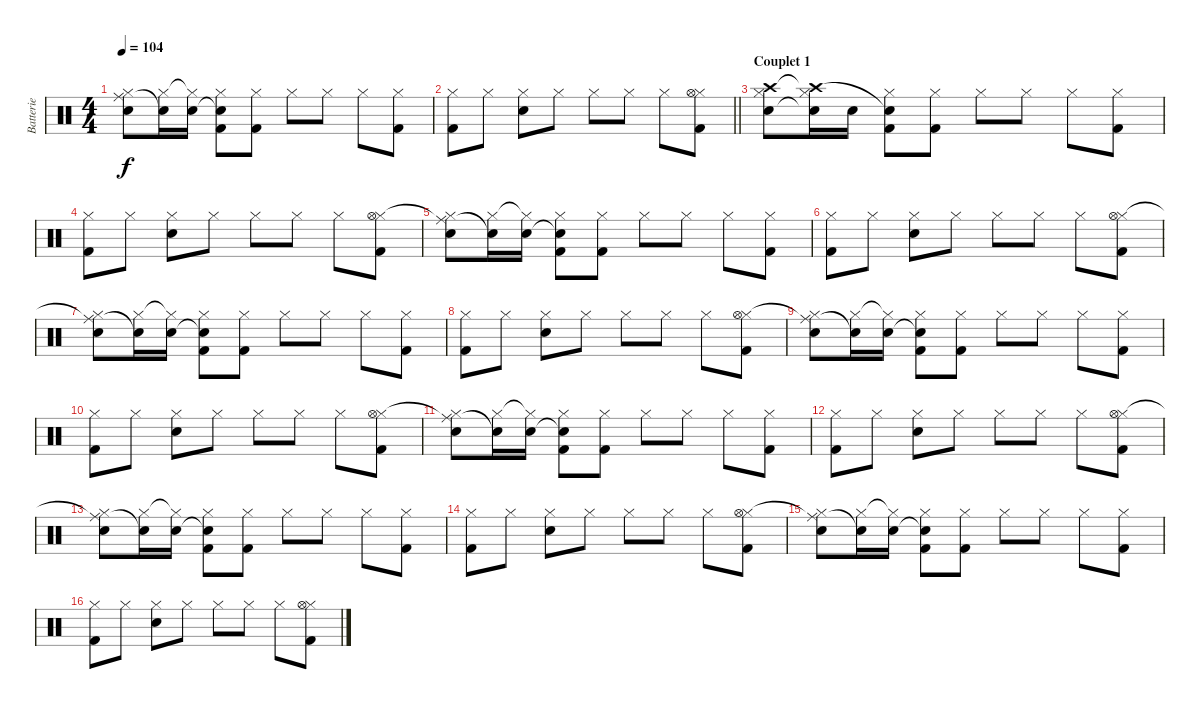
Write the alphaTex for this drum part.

\track ("Batterie" "Batterie") {instrument percussion}
\staff {score}
\articulation defaults
\ts (4 4)
\tempo 104
\clef neutral
\ks c
("Hi-Hat (closed)" "Ride (middle)"{t} "Electric Snare (hit)").8{dy f} ("Hi-Hat (closed)" "Electric Snare (hit)"{t}).16 ("Hi-Hat (closed)"{t} "Electric Snare (hit)").16 ("Hi-Hat (closed)" "Snare (hit) 2"{t} "Kick (hit) 2").8 ("Hi-Hat (closed)" "Kick (hit) 2").8 "Hi-Hat (closed)".8 "Hi-Hat (closed)".8 "Hi-Hat (closed)".8 ("Hi-Hat (closed)" "Kick (hit) 2").8 |
\barLineRight lightlight
("Hi-Hat (closed)" "Kick (hit) 2").8 "Hi-Hat (closed)".8 ("Hi-Hat (closed)" "Electric Snare (hit)").8 "Hi-Hat (closed)".8 "Hi-Hat (closed)".8 "Hi-Hat (closed)".8 "Hi-Hat (closed)".8 ("Hi-Hat (closed)" "Hi-Hat (open)" "Kick (hit) 2").8 |
\section ("" "Couplet 1")
("Hi-Hat (closed)" "Crash high (hit)" "Electric Snare (hit)").8 ("Hi-Hat (closed)" "Crash high (hit)"{t} "Electric Snare (hit)"{t}).16 "Electric Snare (hit)".16 ("Hi-Hat (closed)" "Snare (hit) 2"{t} "Kick (hit) 2").8 ("Hi-Hat (closed)" "Kick (hit) 2").8 "Hi-Hat (closed)".8 "Hi-Hat (closed)".8 "Hi-Hat (closed)".8 ("Hi-Hat (closed)" "Kick (hit) 2").8 |
("Hi-Hat (closed)" "Kick (hit) 2").8 "Hi-Hat (closed)".8 ("Hi-Hat (closed)" "Electric Snare (hit)").8 "Hi-Hat (closed)".8 "Hi-Hat (closed)".8 "Hi-Hat (closed)".8 "Hi-Hat (closed)".8 ("Hi-Hat (closed)" "Hi-Hat (open)" "Kick (hit) 2").8 |
("Hi-Hat (closed)" "Ride (middle)"{t} "Electric Snare (hit)").8 ("Hi-Hat (closed)" "Electric Snare (hit)"{t}).16 ("Hi-Hat (closed)"{t} "Electric Snare (hit)").16 ("Hi-Hat (closed)" "Snare (hit) 2"{t} "Kick (hit) 2").8 ("Hi-Hat (closed)" "Kick (hit) 2").8 "Hi-Hat (closed)".8 "Hi-Hat (closed)".8 "Hi-Hat (closed)".8 ("Hi-Hat (closed)" "Kick (hit) 2").8 |
("Hi-Hat (closed)" "Kick (hit) 2").8 "Hi-Hat (closed)".8 ("Hi-Hat (closed)" "Electric Snare (hit)").8 "Hi-Hat (closed)".8 "Hi-Hat (closed)".8 "Hi-Hat (closed)".8 "Hi-Hat (closed)".8 ("Hi-Hat (closed)" "Hi-Hat (open)" "Kick (hit) 2").8 |
("Hi-Hat (closed)" "Ride (middle)"{t} "Electric Snare (hit)").8 ("Hi-Hat (closed)" "Electric Snare (hit)"{t}).16 ("Hi-Hat (closed)"{t} "Electric Snare (hit)").16 ("Hi-Hat (closed)" "Snare (hit) 2"{t} "Kick (hit) 2").8 ("Hi-Hat (closed)" "Kick (hit) 2").8 "Hi-Hat (closed)".8 "Hi-Hat (closed)".8 "Hi-Hat (closed)".8 ("Hi-Hat (closed)" "Kick (hit) 2").8 |
("Hi-Hat (closed)" "Kick (hit) 2").8 "Hi-Hat (closed)".8 ("Hi-Hat (closed)" "Electric Snare (hit)").8 "Hi-Hat (closed)".8 "Hi-Hat (closed)".8 "Hi-Hat (closed)".8 "Hi-Hat (closed)".8 ("Hi-Hat (closed)" "Hi-Hat (open)" "Kick (hit) 2").8 |
("Hi-Hat (closed)" "Ride (middle)"{t} "Electric Snare (hit)").8 ("Hi-Hat (closed)" "Electric Snare (hit)"{t}).16 ("Hi-Hat (closed)"{t} "Electric Snare (hit)").16 ("Hi-Hat (closed)" "Snare (hit) 2"{t} "Kick (hit) 2").8 ("Hi-Hat (closed)" "Kick (hit) 2").8 "Hi-Hat (closed)".8 "Hi-Hat (closed)".8 "Hi-Hat (closed)".8 ("Hi-Hat (closed)" "Kick (hit) 2").8 |
("Hi-Hat (closed)" "Kick (hit) 2").8 "Hi-Hat (closed)".8 ("Hi-Hat (closed)" "Electric Snare (hit)").8 "Hi-Hat (closed)".8 "Hi-Hat (closed)".8 "Hi-Hat (closed)".8 "Hi-Hat (closed)".8 ("Hi-Hat (closed)" "Hi-Hat (open)" "Kick (hit) 2").8 |
("Hi-Hat (closed)" "Ride (middle)"{t} "Electric Snare (hit)").8 ("Hi-Hat (closed)" "Electric Snare (hit)"{t}).16 ("Hi-Hat (closed)"{t} "Electric Snare (hit)").16 ("Hi-Hat (closed)" "Snare (hit) 2"{t} "Kick (hit) 2").8 ("Hi-Hat (closed)" "Kick (hit) 2").8 "Hi-Hat (closed)".8 "Hi-Hat (closed)".8 "Hi-Hat (closed)".8 ("Hi-Hat (closed)" "Kick (hit) 2").8 |
("Hi-Hat (closed)" "Kick (hit) 2").8 "Hi-Hat (closed)".8 ("Hi-Hat (closed)" "Electric Snare (hit)").8 "Hi-Hat (closed)".8 "Hi-Hat (closed)".8 "Hi-Hat (closed)".8 "Hi-Hat (closed)".8 ("Hi-Hat (closed)" "Hi-Hat (open)" "Kick (hit) 2").8 |
("Hi-Hat (closed)" "Ride (middle)"{t} "Electric Snare (hit)").8 ("Hi-Hat (closed)" "Electric Snare (hit)"{t}).16 ("Hi-Hat (closed)"{t} "Electric Snare (hit)").16 ("Hi-Hat (closed)" "Snare (hit) 2"{t} "Kick (hit) 2").8 ("Hi-Hat (closed)" "Kick (hit) 2").8 "Hi-Hat (closed)".8 "Hi-Hat (closed)".8 "Hi-Hat (closed)".8 ("Hi-Hat (closed)" "Kick (hit) 2").8 |
("Hi-Hat (closed)" "Kick (hit) 2").8 "Hi-Hat (closed)".8 ("Hi-Hat (closed)" "Electric Snare (hit)").8 "Hi-Hat (closed)".8 "Hi-Hat (closed)".8 "Hi-Hat (closed)".8 "Hi-Hat (closed)".8 ("Hi-Hat (closed)" "Hi-Hat (open)" "Kick (hit) 2").8 |
("Hi-Hat (closed)" "Ride (middle)"{t} "Electric Snare (hit)").8 ("Hi-Hat (closed)" "Electric Snare (hit)"{t}).16 ("Hi-Hat (closed)"{t} "Electric Snare (hit)").16 ("Hi-Hat (closed)" "Snare (hit) 2"{t} "Kick (hit) 2").8 ("Hi-Hat (closed)" "Kick (hit) 2").8 "Hi-Hat (closed)".8 "Hi-Hat (closed)".8 "Hi-Hat (closed)".8 ("Hi-Hat (closed)" "Kick (hit) 2").8 |
("Hi-Hat (closed)" "Kick (hit) 2").8 "Hi-Hat (closed)".8 ("Hi-Hat (closed)" "Electric Snare (hit)").8 "Hi-Hat (closed)".8 "Hi-Hat (closed)".8 "Hi-Hat (closed)".8 "Hi-Hat (closed)".8 ("Hi-Hat (closed)" "Hi-Hat (open)" "Kick (hit) 2").8
